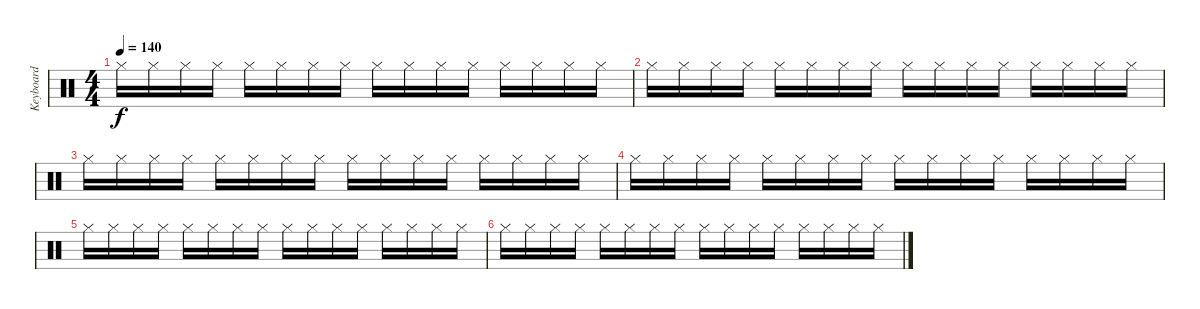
\track ("Keyboard" "Keyboard") {instrument percussion}
\staff {score}
\articulation defaults
\ts (4 4)
\tempo 140
\clef neutral
\ks c "Hi-Hat (closed)".16{dy f} "Hi-Hat (closed)".16 "Hi-Hat (closed)".16 "Hi-Hat (closed)".16 "Hi-Hat (closed)".16 "Hi-Hat (closed)".16 "Hi-Hat (closed)".16 "Hi-Hat (closed)".16 "Hi-Hat (closed)".16 "Hi-Hat (closed)".16 "Hi-Hat (closed)".16 "Hi-Hat (closed)".16 "Hi-Hat (closed)".16 "Hi-Hat (closed)".16 "Hi-Hat (closed)".16 "Hi-Hat (closed)".16
|
"Hi-Hat (closed)".16 "Hi-Hat (closed)".16 "Hi-Hat (closed)".16 "Hi-Hat (closed)".16 "Hi-Hat (closed)".16 "Hi-Hat (closed)".16 "Hi-Hat (closed)".16 "Hi-Hat (closed)".16 "Hi-Hat (closed)".16 "Hi-Hat (closed)".16 "Hi-Hat (closed)".16 "Hi-Hat (closed)".16 "Hi-Hat (closed)".16 "Hi-Hat (closed)".16 "Hi-Hat (closed)".16 "Hi-Hat (closed)".16 |
"Hi-Hat (closed)".16 "Hi-Hat (closed)".16 "Hi-Hat (closed)".16 "Hi-Hat (closed)".16 "Hi-Hat (closed)".16 "Hi-Hat (closed)".16 "Hi-Hat (closed)".16 "Hi-Hat (closed)".16 "Hi-Hat (closed)".16 "Hi-Hat (closed)".16 "Hi-Hat (closed)".16 "Hi-Hat (closed)".16 "Hi-Hat (closed)".16 "Hi-Hat (closed)".16 "Hi-Hat (closed)".16 "Hi-Hat (closed)".16 |
"Hi-Hat (closed)".16 "Hi-Hat (closed)".16 "Hi-Hat (closed)".16 "Hi-Hat (closed)".16 "Hi-Hat (closed)".16 "Hi-Hat (closed)".16 "Hi-Hat (closed)".16 "Hi-Hat (closed)".16 "Hi-Hat (closed)".16 "Hi-Hat (closed)".16 "Hi-Hat (closed)".16 "Hi-Hat (closed)".16 "Hi-Hat (closed)".16 "Hi-Hat (closed)".16 "Hi-Hat (closed)".16 "Hi-Hat (closed)".16 |
"Hi-Hat (closed)".16 "Hi-Hat (closed)".16 "Hi-Hat (closed)".16 "Hi-Hat (closed)".16 "Hi-Hat (closed)".16 "Hi-Hat (closed)".16 "Hi-Hat (closed)".16 "Hi-Hat (closed)".16 "Hi-Hat (closed)".16 "Hi-Hat (closed)".16 "Hi-Hat (closed)".16 "Hi-Hat (closed)".16 "Hi-Hat (closed)".16 "Hi-Hat (closed)".16 "Hi-Hat (closed)".16 "Hi-Hat (closed)".16 |
"Hi-Hat (closed)".16 "Hi-Hat (closed)".16 "Hi-Hat (closed)".16 "Hi-Hat (closed)".16 "Hi-Hat (closed)".16 "Hi-Hat (closed)".16 "Hi-Hat (closed)".16 "Hi-Hat (closed)".16 "Hi-Hat (closed)".16 "Hi-Hat (closed)".16 "Hi-Hat (closed)".16 "Hi-Hat (closed)".16 "Hi-Hat (closed)".16 "Hi-Hat (closed)".16 "Hi-Hat (closed)".16 "Hi-Hat (closed)".16
